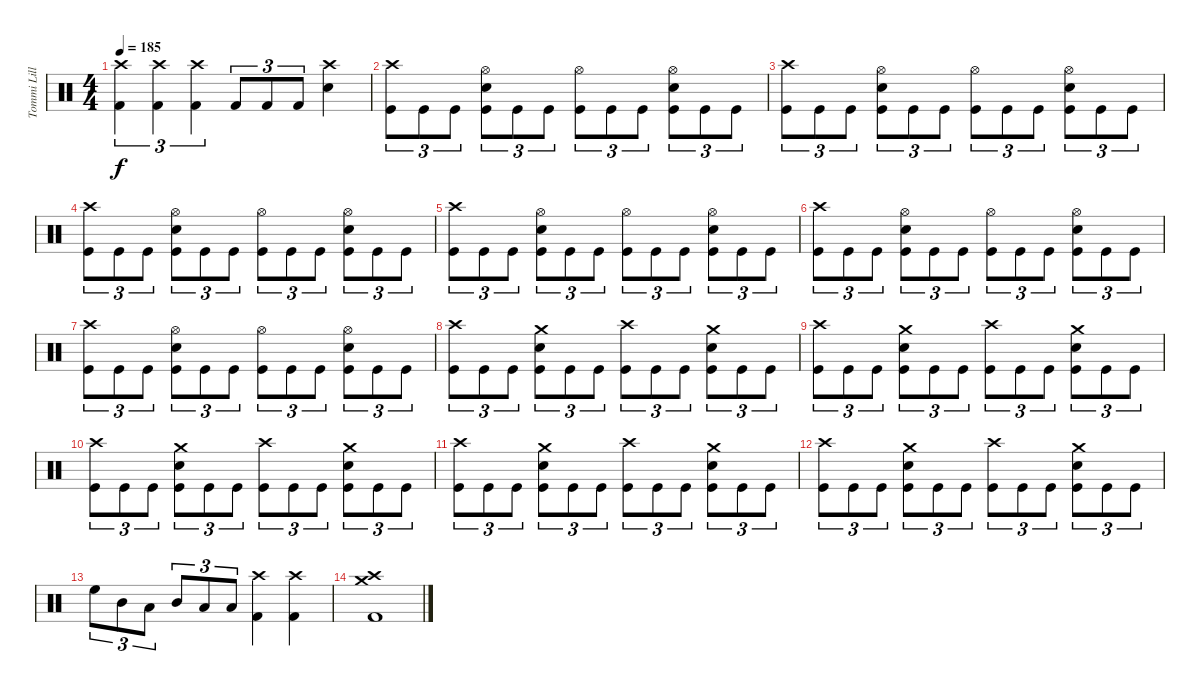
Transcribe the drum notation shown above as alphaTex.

\track ("Tommi Lillman" "Tommi Lill") {instrument percussion}
\staff {score}
\articulation defaults
\ts (4 4)
\tempo 185
\clef neutral
\ks c
("Crash high (hit)" "Kick (hit) 2").4{tu (3 2) dy f} ("Crash high (hit)" "Kick (hit) 2").4{tu (3 2)} ("Crash high (hit)" "Kick (hit) 2").4{tu (3 2)} "Kick (hit) 2".8{tu (3 2)} "Kick (hit) 2".8{tu (3 2)} "Kick (hit) 2".8{tu (3 2)} ("Crash high (hit)" "Snare (hit) 2").4 |
("Crash high (hit)" "Kick (hit)").8{tu (3 2)} "Kick (hit)".8{tu (3 2)} "Kick (hit)".8{tu (3 2)} ("Hi-Hat (open)" "Snare (hit) 2" "Kick (hit)").8{tu (3 2)} "Kick (hit)".8{tu (3 2)} "Kick (hit)".8{tu (3 2)} ("Hi-Hat (open)" "Kick (hit)").8{tu (3 2)} "Kick (hit)".8{tu (3 2)} "Kick (hit)".8{tu (3 2)} ("Hi-Hat (open)" "Snare (hit) 2" "Kick (hit)").8{tu (3 2)} "Kick (hit)".8{tu (3 2)} "Kick (hit)".8{tu (3 2)} |
("Crash high (hit)" "Kick (hit)").8{tu (3 2)} "Kick (hit)".8{tu (3 2)} "Kick (hit)".8{tu (3 2)} ("Hi-Hat (open)" "Snare (hit) 2" "Kick (hit)").8{tu (3 2)} "Kick (hit)".8{tu (3 2)} "Kick (hit)".8{tu (3 2)} ("Hi-Hat (open)" "Kick (hit)").8{tu (3 2)} "Kick (hit)".8{tu (3 2)} "Kick (hit)".8{tu (3 2)} ("Hi-Hat (open)" "Snare (hit) 2" "Kick (hit)").8{tu (3 2)} "Kick (hit)".8{tu (3 2)} "Kick (hit)".8{tu (3 2)} |
("Crash high (hit)" "Kick (hit)").8{tu (3 2)} "Kick (hit)".8{tu (3 2)} "Kick (hit)".8{tu (3 2)} ("Hi-Hat (open)" "Snare (hit) 2" "Kick (hit)").8{tu (3 2)} "Kick (hit)".8{tu (3 2)} "Kick (hit)".8{tu (3 2)} ("Hi-Hat (open)" "Kick (hit)").8{tu (3 2)} "Kick (hit)".8{tu (3 2)} "Kick (hit)".8{tu (3 2)} ("Hi-Hat (open)" "Snare (hit) 2" "Kick (hit)").8{tu (3 2)} "Kick (hit)".8{tu (3 2)} "Kick (hit)".8{tu (3 2)} |
("Crash high (hit)" "Kick (hit)").8{tu (3 2)} "Kick (hit)".8{tu (3 2)} "Kick (hit)".8{tu (3 2)} ("Hi-Hat (open)" "Snare (hit) 2" "Kick (hit)").8{tu (3 2)} "Kick (hit)".8{tu (3 2)} "Kick (hit)".8{tu (3 2)} ("Hi-Hat (open)" "Kick (hit)").8{tu (3 2)} "Kick (hit)".8{tu (3 2)} "Kick (hit)".8{tu (3 2)} ("Hi-Hat (open)" "Snare (hit) 2" "Kick (hit)").8{tu (3 2)} "Kick (hit)".8{tu (3 2)} "Kick (hit)".8{tu (3 2)} |
("Crash high (hit)" "Kick (hit)").8{tu (3 2)} "Kick (hit)".8{tu (3 2)} "Kick (hit)".8{tu (3 2)} ("Hi-Hat (open)" "Snare (hit) 2" "Kick (hit)").8{tu (3 2)} "Kick (hit)".8{tu (3 2)} "Kick (hit)".8{tu (3 2)} ("Hi-Hat (open)" "Kick (hit)").8{tu (3 2)} "Kick (hit)".8{tu (3 2)} "Kick (hit)".8{tu (3 2)} ("Hi-Hat (open)" "Snare (hit) 2" "Kick (hit)").8{tu (3 2)} "Kick (hit)".8{tu (3 2)} "Kick (hit)".8{tu (3 2)} |
("Crash high (hit)" "Kick (hit)").8{tu (3 2)} "Kick (hit)".8{tu (3 2)} "Kick (hit)".8{tu (3 2)} ("Hi-Hat (open)" "Snare (hit) 2" "Kick (hit)").8{tu (3 2)} "Kick (hit)".8{tu (3 2)} "Kick (hit)".8{tu (3 2)} ("Hi-Hat (open)" "Kick (hit)").8{tu (3 2)} "Kick (hit)".8{tu (3 2)} "Kick (hit)".8{tu (3 2)} ("Hi-Hat (open)" "Snare (hit) 2" "Kick (hit)").8{tu (3 2)} "Kick (hit)".8{tu (3 2)} "Kick (hit)".8{tu (3 2)} |
("Crash high (hit)" "Kick (hit)").8{tu (3 2)} "Kick (hit)".8{tu (3 2)} "Kick (hit)".8{tu (3 2)} ("Crash medium (hit)" "Snare (hit) 2" "Kick (hit)").8{tu (3 2)} "Kick (hit)".8{tu (3 2)} "Kick (hit)".8{tu (3 2)} ("Crash high (hit)" "Kick (hit)").8{tu (3 2)} "Kick (hit)".8{tu (3 2)} "Kick (hit)".8{tu (3 2)} ("Crash medium (hit)" "Snare (hit) 2" "Kick (hit)").8{tu (3 2)} "Kick (hit)".8{tu (3 2)} "Kick (hit)".8{tu (3 2)} |
("Crash high (hit)" "Kick (hit)").8{tu (3 2)} "Kick (hit)".8{tu (3 2)} "Kick (hit)".8{tu (3 2)} ("Crash medium (hit)" "Snare (hit) 2" "Kick (hit)").8{tu (3 2)} "Kick (hit)".8{tu (3 2)} "Kick (hit)".8{tu (3 2)} ("Crash high (hit)" "Kick (hit)").8{tu (3 2)} "Kick (hit)".8{tu (3 2)} "Kick (hit)".8{tu (3 2)} ("Crash medium (hit)" "Snare (hit) 2" "Kick (hit)").8{tu (3 2)} "Kick (hit)".8{tu (3 2)} "Kick (hit)".8{tu (3 2)} |
("Crash high (hit)" "Kick (hit)").8{tu (3 2)} "Kick (hit)".8{tu (3 2)} "Kick (hit)".8{tu (3 2)} ("Crash medium (hit)" "Snare (hit) 2" "Kick (hit)").8{tu (3 2)} "Kick (hit)".8{tu (3 2)} "Kick (hit)".8{tu (3 2)} ("Crash high (hit)" "Kick (hit)").8{tu (3 2)} "Kick (hit)".8{tu (3 2)} "Kick (hit)".8{tu (3 2)} ("Crash medium (hit)" "Snare (hit) 2" "Kick (hit)").8{tu (3 2)} "Kick (hit)".8{tu (3 2)} "Kick (hit)".8{tu (3 2)} |
("Crash high (hit)" "Kick (hit)").8{tu (3 2)} "Kick (hit)".8{tu (3 2)} "Kick (hit)".8{tu (3 2)} ("Crash medium (hit)" "Snare (hit) 2" "Kick (hit)").8{tu (3 2)} "Kick (hit)".8{tu (3 2)} "Kick (hit)".8{tu (3 2)} ("Crash high (hit)" "Kick (hit)").8{tu (3 2)} "Kick (hit)".8{tu (3 2)} "Kick (hit)".8{tu (3 2)} ("Crash medium (hit)" "Snare (hit) 2" "Kick (hit)").8{tu (3 2)} "Kick (hit)".8{tu (3 2)} "Kick (hit)".8{tu (3 2)} |
("Crash high (hit)" "Kick (hit)").8{tu (3 2)} "Kick (hit)".8{tu (3 2)} "Kick (hit)".8{tu (3 2)} ("Crash medium (hit)" "Snare (hit) 2" "Kick (hit)").8{tu (3 2)} "Kick (hit)".8{tu (3 2)} "Kick (hit)".8{tu (3 2)} ("Crash high (hit)" "Kick (hit)").8{tu (3 2)} "Kick (hit)".8{tu (3 2)} "Kick (hit)".8{tu (3 2)} ("Crash medium (hit)" "Snare (hit) 2" "Kick (hit)").8{tu (3 2)} "Kick (hit)".8{tu (3 2)} "Kick (hit)".8{tu (3 2)} |
"High Floor Tom (hit)".8{tu (3 2)} "Mid Tom (hit)".8{tu (3 2)} "Low Tom (hit)".8{tu (3 2)} "Mid Tom (hit)".8{tu (3 2)} "Low Tom (hit)".8{tu (3 2)} "Low Floor Tom (hit)".8{tu (3 2)} ("Crash high (hit)" "Kick (hit) 2").4 ("Crash high (hit)" "Kick (hit) 2").4 |
("Crash high (hit)" "Crash medium (hit)" "Kick (hit) 2").1
